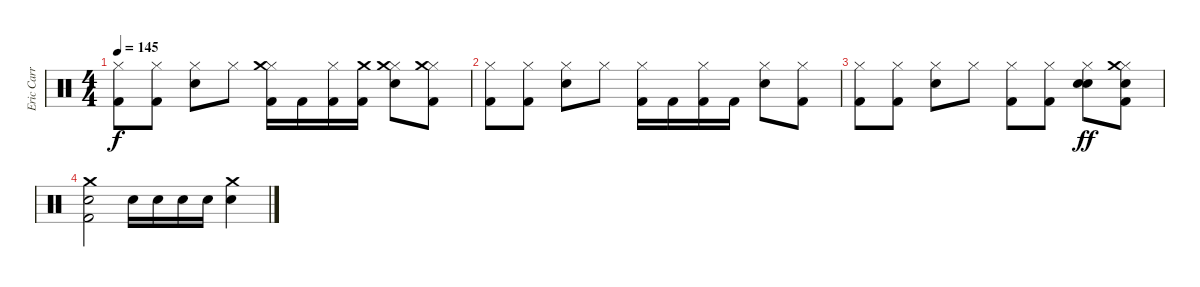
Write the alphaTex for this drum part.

\track ("Eric Carr" "Eric Carr") {instrument percussion}
\staff {score}
\articulation defaults
\ts (4 4)
\tempo 145
\clef neutral
\ks c
("Hi-Hat (closed)" "Kick (hit) 2").8{dy f} ("Hi-Hat (closed)" "Kick (hit) 2").8 ("Hi-Hat (closed)" "Snare (hit) 2").8 "Hi-Hat (closed)".8 ("Hi-Hat (closed)" "Crash medium (hit)" "Kick (hit) 2").16 "Kick (hit) 2".16 ("Hi-Hat (closed)" "Kick (hit) 2").16 ("Crash medium (hit)" "Kick (hit) 2").16 ("Hi-Hat (closed)" "Snare (hit) 2" "Crash medium (hit)").8 ("Hi-Hat (closed)" "Crash medium (hit)" "Kick (hit) 2").8 |
("Hi-Hat (closed)" "Kick (hit) 2").8 ("Hi-Hat (closed)" "Kick (hit) 2").8 ("Hi-Hat (closed)" "Snare (hit) 2").8 "Hi-Hat (closed)".8 ("Hi-Hat (closed)" "Kick (hit) 2").16 "Kick (hit) 2".16 ("Hi-Hat (closed)" "Kick (hit) 2").16 "Kick (hit) 2".16 ("Hi-Hat (closed)" "Snare (hit) 2").8 ("Hi-Hat (closed)" "Kick (hit) 2").8 |
("Hi-Hat (closed)" "Kick (hit) 2").8 ("Hi-Hat (closed)" "Kick (hit) 2").8 ("Hi-Hat (closed)" "Snare (hit) 2").8 "Hi-Hat (closed)".8 ("Hi-Hat (closed)" "Kick (hit) 2").8 ("Hi-Hat (closed)" "Kick (hit) 2").8 ("Hi-Hat (closed)" "Snare (hit) 2" "Snare (hit) 2").8{dy ff} ("Hi-Hat (closed)" "Snare (hit) 2" "Crash medium (hit)" "Kick (hit) 2").8 |
("Crash medium (hit)" "Kick (hit) 2" "Snare (hit) 2").2 "Snare (hit) 2".16 "Snare (hit) 2".16 "Snare (hit) 2".16 "Snare (hit) 2".16 ("Snare (hit) 2" "Crash medium (hit)").4
